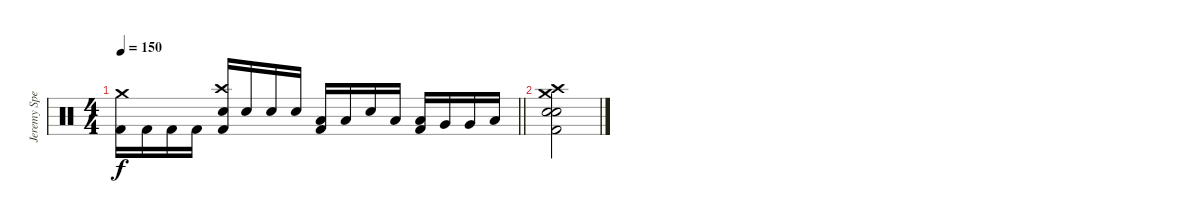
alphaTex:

\track ("Jeremy Spencer – Drums" "Jeremy Spe") {instrument percussion}
\staff {score}
\articulation defaults
\ts (4 4)
\tempo 150
\clef neutral
\barLineRight lightlight
\ks c
("Crash medium (hit)" "Kick (hit) 2").16{dy f} "Kick (hit) 2".16 "Kick (hit) 2".16 "Kick (hit) 2".16 ("Crash high (hit)" "Snare (hit) 2" "Kick (hit) 2").16 "Snare (hit) 2".16 "Snare (hit) 2".16 "Snare (hit) 2".16 ("Low Tom (hit)" "Kick (hit) 2").16 "Low Tom (hit)".16 "Snare (hit) 2".16 "Low Tom (hit)".16 ("Low Tom (hit)" "Kick (hit) 2").16 "Very Low Tom (hit)".16 "Very Low Tom (hit)".16 "Low Floor Tom (hit)".16 |
("Crash high (hit)" "Crash medium (hit)" "Snare (hit) 2" "Snare (hit) 2" "Kick (hit) 2").2
